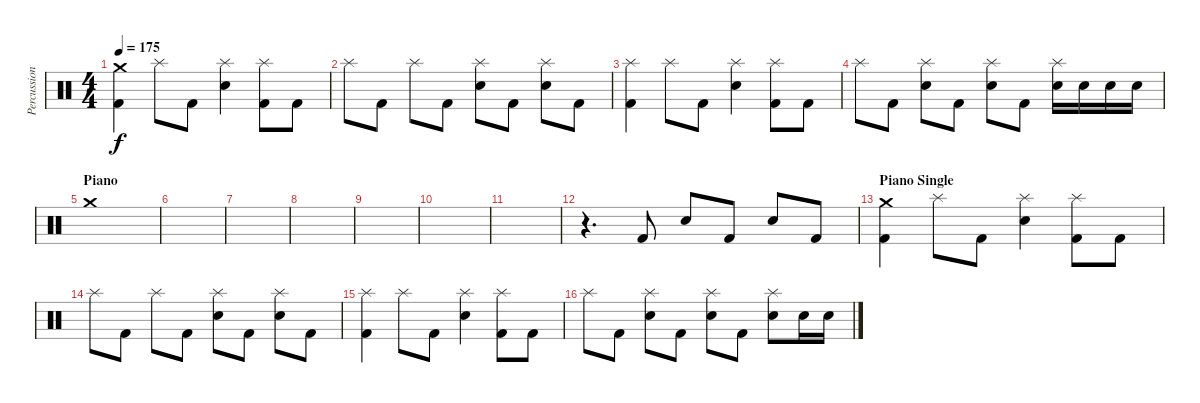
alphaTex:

\track ("Percussion" "Percussion") {instrument percussion}
\staff {score}
\articulation defaults
\ts (4 4)
\tempo 175
\clef neutral
\ks c
("Crash medium (hit)" "Kick (hit) 2").4{dy f} "Splash (hit)".8 "Kick (hit) 2".8 ("Splash (hit)" "Electric Snare (hit)").4 ("Splash (hit)" "Kick (hit) 2").8 "Kick (hit) 2".8 |
"Splash (hit)".8 "Kick (hit) 2".8 "Splash (hit)".8 "Kick (hit) 2".8 ("Splash (hit)" "Electric Snare (hit)").8 "Kick (hit) 2".8 ("Splash (hit)" "Electric Snare (hit)").8 "Kick (hit) 2".8 |
("Splash (hit)" "Kick (hit) 2").4 "Splash (hit)".8 "Kick (hit) 2".8 ("Splash (hit)" "Electric Snare (hit)").4 ("Splash (hit)" "Kick (hit) 2").8 "Kick (hit) 2".8 |
"Splash (hit)".8 "Kick (hit) 2".8 ("Splash (hit)" "Electric Snare (hit)").8 "Kick (hit) 2".8 ("Splash (hit)" "Electric Snare (hit)").8 "Kick (hit) 2".8 ("Splash (hit)" "Electric Snare (hit)").16 "Electric Snare (hit)".16 "Electric Snare (hit)".16 "Electric Snare (hit)".16 |
\section ("" "Piano")
"Crash medium (hit)".1 |
|
|
|
|
|
|
r.4{d} "Kick (hit) 2".8 "Electric Snare (hit)".8 "Kick (hit) 2".8 "Electric Snare (hit)".8 "Kick (hit) 2".8 |
\section ("" "Piano Single")
("Crash medium (hit)" "Kick (hit) 2").4 "Splash (hit)".8 "Kick (hit) 2".8 ("Splash (hit)" "Electric Snare (hit)").4 ("Splash (hit)" "Kick (hit) 2").8 "Kick (hit) 2".8 |
"Splash (hit)".8 "Kick (hit) 2".8 "Splash (hit)".8 "Kick (hit) 2".8 ("Splash (hit)" "Electric Snare (hit)").8 "Kick (hit) 2".8 ("Splash (hit)" "Electric Snare (hit)").8 "Kick (hit) 2".8 |
("Splash (hit)" "Kick (hit) 2").4 "Splash (hit)".8 "Kick (hit) 2".8 ("Splash (hit)" "Electric Snare (hit)").4 ("Splash (hit)" "Kick (hit) 2").8 "Kick (hit) 2".8 |
"Splash (hit)".8 "Kick (hit) 2".8 ("Splash (hit)" "Electric Snare (hit)").8 "Kick (hit) 2".8 ("Splash (hit)" "Electric Snare (hit)").8 "Kick (hit) 2".8 ("Splash (hit)" "Electric Snare (hit)").8 "Electric Snare (hit)".16 "Electric Snare (hit)".16
